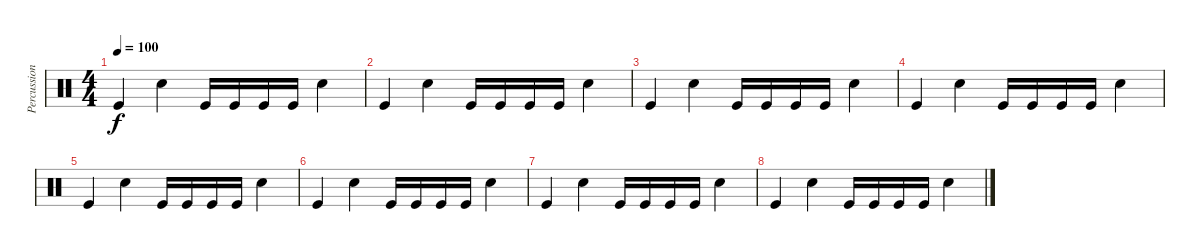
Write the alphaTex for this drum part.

\track ("Percussion" "Percussion") {instrument percussion}
\staff {score}
\articulation defaults
\ts (4 4)
\tempo 100
\clef neutral
\ks c "Kick (hit)".4{dy f} "Snare (hit) 2".4 "Kick (hit)".16 "Kick (hit)".16 "Kick (hit)".16 "Kick (hit)".16 "Snare (hit) 2".4
|
"Kick (hit)".4 "Snare (hit) 2".4 "Kick (hit)".16 "Kick (hit)".16 "Kick (hit)".16 "Kick (hit)".16 "Snare (hit) 2".4 |
"Kick (hit)".4 "Snare (hit) 2".4 "Kick (hit)".16 "Kick (hit)".16 "Kick (hit)".16 "Kick (hit)".16 "Snare (hit) 2".4 |
"Kick (hit)".4 "Snare (hit) 2".4 "Kick (hit)".16 "Kick (hit)".16 "Kick (hit)".16 "Kick (hit)".16 "Snare (hit) 2".4 |
"Kick (hit)".4 "Snare (hit) 2".4 "Kick (hit)".16 "Kick (hit)".16 "Kick (hit)".16 "Kick (hit)".16 "Snare (hit) 2".4 |
"Kick (hit)".4 "Snare (hit) 2".4 "Kick (hit)".16 "Kick (hit)".16 "Kick (hit)".16 "Kick (hit)".16 "Snare (hit) 2".4 |
"Kick (hit)".4 "Snare (hit) 2".4 "Kick (hit)".16 "Kick (hit)".16 "Kick (hit)".16 "Kick (hit)".16 "Snare (hit) 2".4 |
"Kick (hit)".4 "Snare (hit) 2".4 "Kick (hit)".16 "Kick (hit)".16 "Kick (hit)".16 "Kick (hit)".16 "Snare (hit) 2".4
